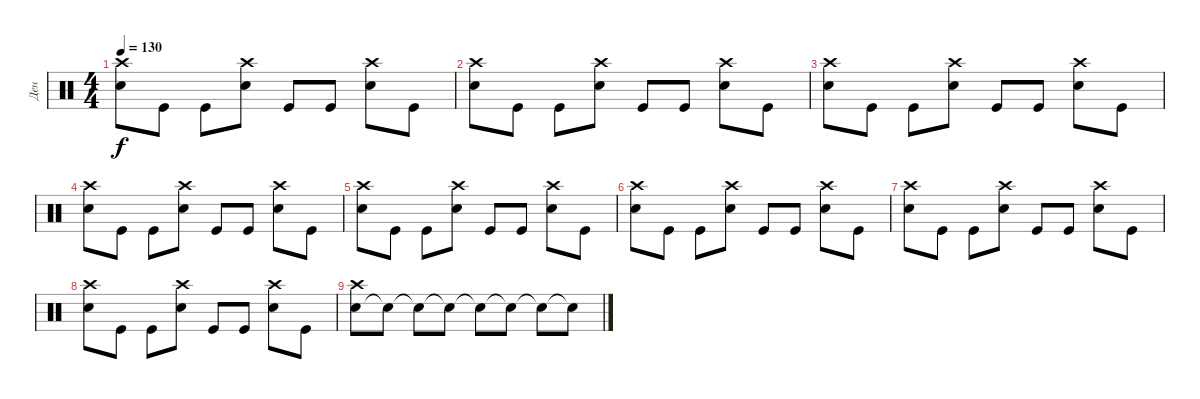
\track ("Ден" "Ден") {instrument percussion}
\staff {score}
\articulation defaults
\ts (4 4)
\tempo 130
\clef neutral
\ks c
("Snare (hit) 2" "Crash high (hit)").8{dy f} "Kick (hit)".8 "Kick (hit)".8 ("Snare (hit) 2" "Crash high (hit)").8 "Kick (hit)".8 "Kick (hit)".8 ("Snare (hit) 2" "Crash high (hit)").8 "Kick (hit)".8 |
("Snare (hit) 2" "Crash high (hit)").8 "Kick (hit)".8 "Kick (hit)".8 ("Snare (hit) 2" "Crash high (hit)").8 "Kick (hit)".8 "Kick (hit)".8 ("Snare (hit) 2" "Crash high (hit)").8 "Kick (hit)".8 |
("Snare (hit) 2" "Crash high (hit)").8 "Kick (hit)".8 "Kick (hit)".8 ("Snare (hit) 2" "Crash high (hit)").8 "Kick (hit)".8 "Kick (hit)".8 ("Snare (hit) 2" "Crash high (hit)").8 "Kick (hit)".8 |
("Snare (hit) 2" "Crash high (hit)").8 "Kick (hit)".8 "Kick (hit)".8 ("Snare (hit) 2" "Crash high (hit)").8 "Kick (hit)".8 "Kick (hit)".8 ("Snare (hit) 2" "Crash high (hit)").8 "Kick (hit)".8 |
("Snare (hit) 2" "Crash high (hit)").8 "Kick (hit)".8 "Kick (hit)".8 ("Snare (hit) 2" "Crash high (hit)").8 "Kick (hit)".8 "Kick (hit)".8 ("Snare (hit) 2" "Crash high (hit)").8 "Kick (hit)".8 |
("Snare (hit) 2" "Crash high (hit)").8 "Kick (hit)".8 "Kick (hit)".8 ("Snare (hit) 2" "Crash high (hit)").8 "Kick (hit)".8 "Kick (hit)".8 ("Snare (hit) 2" "Crash high (hit)").8 "Kick (hit)".8 |
("Snare (hit) 2" "Crash high (hit)").8 "Kick (hit)".8 "Kick (hit)".8 ("Snare (hit) 2" "Crash high (hit)").8 "Kick (hit)".8 "Kick (hit)".8 ("Snare (hit) 2" "Crash high (hit)").8 "Kick (hit)".8 |
("Snare (hit) 2" "Crash high (hit)").8 "Kick (hit)".8 "Kick (hit)".8 ("Snare (hit) 2" "Crash high (hit)").8 "Kick (hit)".8 "Kick (hit)".8 ("Snare (hit) 2" "Crash high (hit)").8 "Kick (hit)".8 |
("Snare (hit) 2" "Crash high (hit)").8 "Snare (hit)"{t}.8 "Snare (hit)"{t}.8 "Snare (hit)"{t}.8 "Snare (hit)"{t}.8 "Snare (hit)"{t}.8 "Snare (hit)"{t}.8 "Snare (hit)"{t}.8
